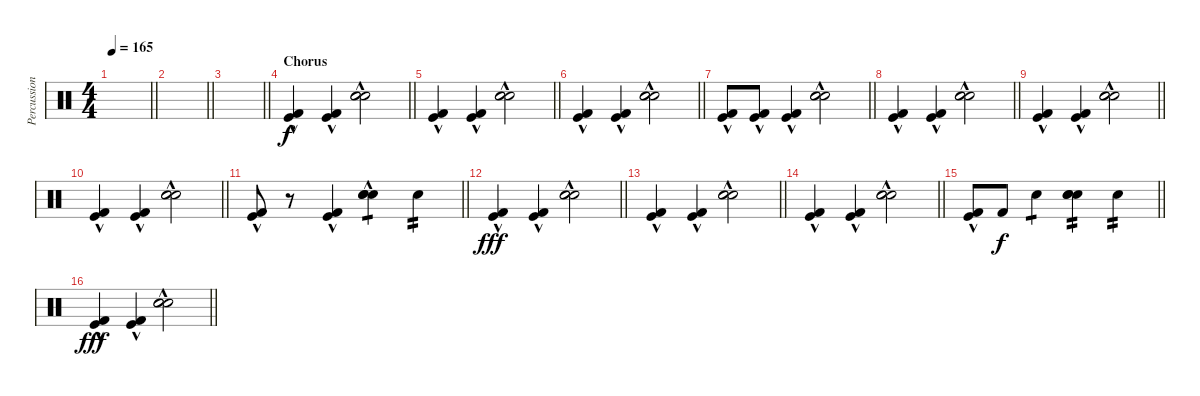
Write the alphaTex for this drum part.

\track ("Percussion" "Percussion") {instrument percussion}
\staff {score}
\articulation defaults
\ts (4 4)
\tempo 165
\clef neutral
\barLineRight lightlight
\ks c
|
\barLineRight lightlight
|
\barLineRight lightlight
|
\section ("" "Chorus")
\barLineRight lightlight
("Kick (hit) 2"{hac} "Kick (hit)"{hac}).4 ("Kick (hit) 2"{hac} "Kick (hit)"{hac}).4 ("Snare (hit) 2"{hac} "Hand Clap (hit)"{hac} "Electric Snare (hit)"{hac}).2 |
\barLineRight lightlight
("Kick (hit) 2"{hac} "Kick (hit)"{hac}).4 ("Kick (hit) 2"{hac} "Kick (hit)"{hac}).4 ("Snare (hit) 2" "Hand Clap (hit)"{hac} "Electric Snare (hit)").2 |
\barLineRight lightlight
("Kick (hit) 2"{hac} "Kick (hit)"{hac}).4 ("Kick (hit) 2"{hac} "Kick (hit)"{hac}).4 ("Snare (hit) 2" "Hand Clap (hit)"{hac} "Electric Snare (hit)").2 |
\barLineRight lightlight
("Kick (hit) 2"{hac} "Kick (hit)"{hac}).8 ("Kick (hit) 2"{hac} "Kick (hit)"{hac}).8 ("Kick (hit) 2"{hac} "Kick (hit)"{hac}).4 ("Snare (hit) 2" "Hand Clap (hit)"{hac} "Electric Snare (hit)").2 |
\barLineRight lightlight
("Kick (hit) 2"{hac} "Kick (hit)"{hac}).4 ("Kick (hit) 2"{hac} "Kick (hit)"{hac}).4 ("Snare (hit) 2"{hac} "Hand Clap (hit)"{hac} "Electric Snare (hit)"{hac}).2 |
\barLineRight lightlight
("Kick (hit) 2"{hac} "Kick (hit)"{hac}).4 ("Kick (hit) 2"{hac} "Kick (hit)"{hac}).4 ("Snare (hit) 2" "Hand Clap (hit)"{hac} "Electric Snare (hit)").2 |
\barLineRight lightlight
("Kick (hit) 2"{hac} "Kick (hit)"{hac}).4 ("Kick (hit) 2"{hac} "Kick (hit)"{hac}).4 ("Snare (hit) 2" "Hand Clap (hit)"{hac} "Electric Snare (hit)").2 |
\barLineRight lightlight
("Kick (hit) 2"{hac} "Kick (hit)"{hac}).8 r.8 ("Kick (hit) 2"{hac} "Kick (hit)"{hac}).4 ("Snare (hit) 2" "Hand Clap (hit)"{hac} "Electric Snare (hit)").4{tp 1} "Electric Snare (hit)".4{tp 2 dy f} |
\barLineRight lightlight
("Kick (hit) 2"{hac} "Kick (hit)"{hac}).4{dy fff} ("Kick (hit) 2"{hac} "Kick (hit)"{hac}).4 ("Snare (hit) 2" "Hand Clap (hit)"{hac} "Electric Snare (hit)").2 |
\barLineRight lightlight
("Kick (hit) 2"{hac} "Kick (hit)"{hac}).4 ("Kick (hit) 2"{hac} "Kick (hit)"{hac}).4 ("Snare (hit) 2" "Hand Clap (hit)"{hac} "Electric Snare (hit)").2 |
\barLineRight lightlight
("Kick (hit) 2"{hac} "Kick (hit)"{hac}).4 ("Kick (hit) 2"{hac} "Kick (hit)"{hac}).4 ("Snare (hit) 2" "Hand Clap (hit)"{hac} "Electric Snare (hit)").2 |
\barLineRight lightlight
("Kick (hit) 2"{hac} "Kick (hit)"{hac}).8 "Kick (hit) 2".8{dy f} "Electric Snare (hit)".4{tp 1} ("Snare (hit) 2" "Hand Clap (hit)" "Electric Snare (hit)").4{tp 2} "Electric Snare (hit)".4{tp 2} |
\barLineRight lightlight
("Kick (hit) 2"{hac} "Kick (hit)"{hac}).4{dy fff} ("Kick (hit) 2"{hac} "Kick (hit)"{hac}).4 ("Snare (hit) 2" "Hand Clap (hit)"{hac} "Electric Snare (hit)").2
